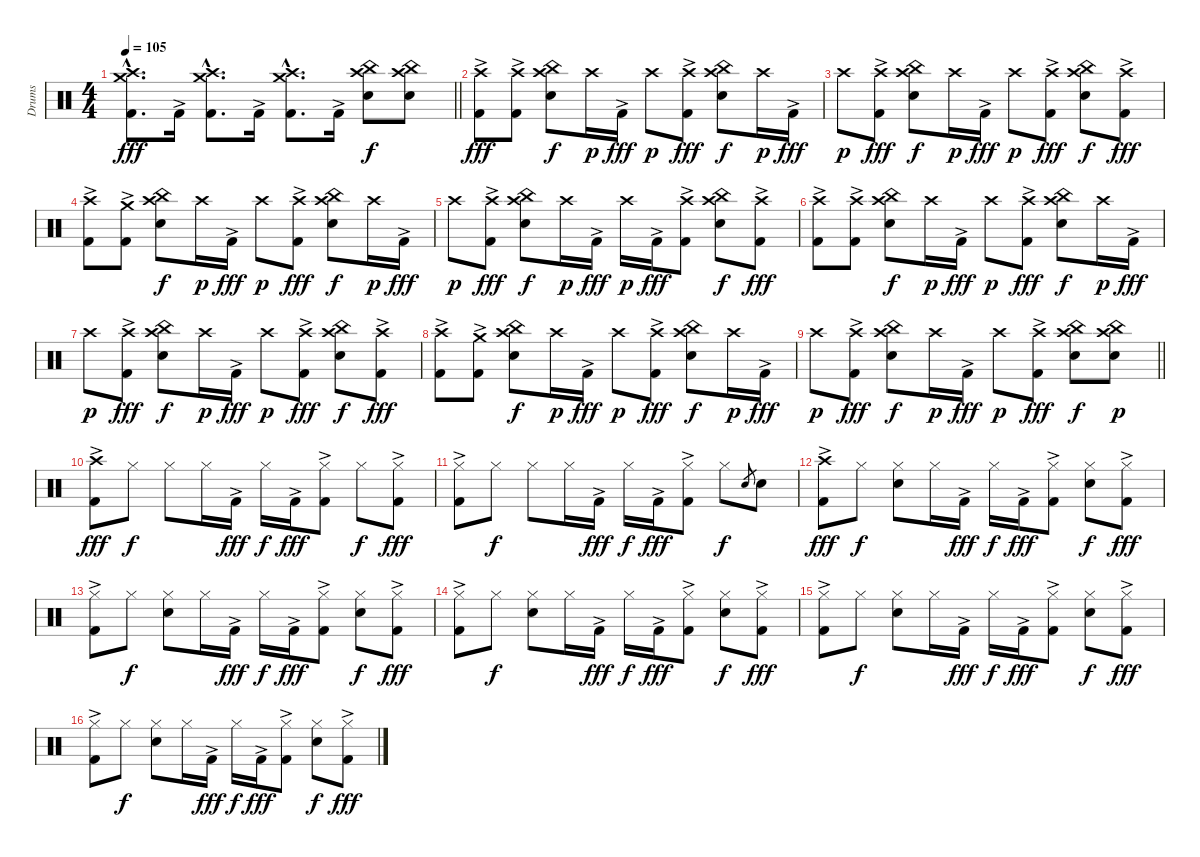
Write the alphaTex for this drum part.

\track ("Drums" "Drums") {instrument percussion}
\staff {score}
\articulation defaults
\ts (4 4)
\tempo 105
\clef neutral
\barLineRight lightlight
\ks aminor
("Crash high (hit)"{hac} "Crash medium (hit)"{hac} "Kick (hit) 2"{hac}).8{d dy fff} "Kick (hit) 2"{ac}.16 ("Crash high (hit)"{hac} "Crash medium (hit)"{hac} "Kick (hit) 2"{hac}).8{d} "Kick (hit) 2"{ac}.16 ("Crash high (hit)"{hac} "Crash medium (hit)"{hac} "Kick (hit) 2"{hac}).8{d} "Kick (hit) 2"{ac}.16 ("Crash high (hit)" "China (hit)" "Snare (hit) 2").8{dy f} ("Crash high (hit)" "China (hit)" "Snare (hit) 2").8 |
("Crash high (hit)" "Kick (hit) 2"{ac}).8{dy fff} ("Crash high (hit)" "Kick (hit) 2"{ac}).8 ("Crash high (hit)" "China (hit)" "Snare (hit) 2").8{dy f} "Crash high (hit)".16{dy p} "Kick (hit) 2"{ac}.16{dy fff} "Crash high (hit)".8{dy p} ("Crash high (hit)" "Kick (hit) 2"{ac}).8{dy fff} ("Crash high (hit)" "China (hit)" "Snare (hit) 2").8{dy f} "Crash high (hit)".16{dy p} "Kick (hit) 2"{ac}.16{dy fff} |
"Crash high (hit)".8{dy p} ("Crash high (hit)" "Kick (hit) 2"{ac}).8{dy fff} ("Crash high (hit)" "China (hit)" "Snare (hit) 2").8{dy f} "Crash high (hit)".16{dy p} "Kick (hit) 2"{ac}.16{dy fff} "Crash high (hit)".8{dy p} ("Crash high (hit)" "Kick (hit) 2"{ac}).8{dy fff} ("Crash high (hit)" "China (hit)" "Snare (hit) 2").8{dy f} ("Crash high (hit)" "Kick (hit) 2"{ac}).8{dy fff} |
("Crash high (hit)" "Kick (hit) 2"{ac}).8 ("Crash medium (hit)" "Kick (hit) 2"{ac}).8 ("Crash high (hit)" "China (hit)" "Snare (hit) 2").8{dy f} "Crash high (hit)".16{dy p} "Kick (hit) 2"{ac}.16{dy fff} "Crash high (hit)".8{dy p} ("Crash high (hit)" "Kick (hit) 2"{ac}).8{dy fff} ("Crash high (hit)" "China (hit)" "Snare (hit) 2").8{dy f} "Crash high (hit)".16{dy p} "Kick (hit) 2"{ac}.16{dy fff} |
"Crash high (hit)".8{dy p} ("Crash high (hit)" "Kick (hit) 2"{ac}).8{dy fff} ("Crash high (hit)" "China (hit)" "Snare (hit) 2").8{dy f} "Crash high (hit)".16{dy p} "Kick (hit) 2"{ac}.16{dy fff} "Crash high (hit)".16{dy p} "Kick (hit) 2"{ac}.16{dy fff} ("Crash high (hit)" "Kick (hit) 2"{ac}).8 ("Crash high (hit)" "China (hit)" "Snare (hit) 2").8{dy f} ("Crash high (hit)" "Kick (hit) 2"{ac}).8{dy fff} |
("Crash high (hit)" "Kick (hit) 2"{ac}).8 ("Crash high (hit)" "Kick (hit) 2"{ac}).8 ("Crash high (hit)" "China (hit)" "Snare (hit) 2").8{dy f} "Crash high (hit)".16{dy p} "Kick (hit) 2"{ac}.16{dy fff} "Crash high (hit)".8{dy p} ("Crash high (hit)" "Kick (hit) 2"{ac}).8{dy fff} ("Crash high (hit)" "China (hit)" "Snare (hit) 2").8{dy f} "Crash high (hit)".16{dy p} "Kick (hit) 2"{ac}.16{dy fff} |
"Crash high (hit)".8{dy p} ("Crash high (hit)" "Kick (hit) 2"{ac}).8{dy fff} ("Crash high (hit)" "China (hit)" "Snare (hit) 2").8{dy f} "Crash high (hit)".16{dy p} "Kick (hit) 2"{ac}.16{dy fff} "Crash high (hit)".8{dy p} ("Crash high (hit)" "Kick (hit) 2"{ac}).8{dy fff} ("Crash high (hit)" "China (hit)" "Snare (hit) 2").8{dy f} ("Crash high (hit)" "Kick (hit) 2"{ac}).8{dy fff} |
("Crash high (hit)" "Kick (hit) 2"{ac}).8 ("Crash medium (hit)" "Kick (hit) 2"{ac}).8 ("Crash high (hit)" "China (hit)" "Snare (hit) 2").8{dy f} "Crash high (hit)".16{dy p} "Kick (hit) 2"{ac}.16{dy fff} "Crash high (hit)".8{dy p} ("Crash high (hit)" "Kick (hit) 2"{ac}).8{dy fff} ("Crash high (hit)" "China (hit)" "Snare (hit) 2").8{dy f} "Crash high (hit)".16{dy p} "Kick (hit) 2"{ac}.16{dy fff} |
\barLineRight lightlight "Crash high (hit)".8{dy p}
("Crash high (hit)" "Kick (hit) 2"{ac}).8{dy fff} ("Crash high (hit)" "China (hit)" "Snare (hit) 2").8{dy f} "Crash high (hit)".16{dy p} "Kick (hit) 2"{ac}.16{dy fff} "Crash high (hit)".8{dy p} ("Crash high (hit)" "Kick (hit) 2"{ac}).8{dy fff} ("Crash high (hit)" "China (hit)" "Snare (hit) 2").8{dy f} ("Crash high (hit)" "China (hit)" "Snare (hit) 2").8{dy p} |
("Crash high (hit)" "Kick (hit) 2"{ac}).8{dy fff} "Hi-Hat (closed)".8{dy f} "Hi-Hat (closed)".8 "Hi-Hat (closed)".16 "Kick (hit) 2"{ac}.16{dy fff} "Hi-Hat (closed)".16{dy f} "Kick (hit) 2"{ac}.16{dy fff} ("Hi-Hat (closed)" "Kick (hit) 2"{ac}).8 "Hi-Hat (closed)".8{dy f} ("Hi-Hat (closed)" "Kick (hit) 2"{ac}).8{dy fff} |
("Hi-Hat (closed)" "Kick (hit) 2"{ac}).8 "Hi-Hat (closed)".8{dy f} "Hi-Hat (closed)".8 "Hi-Hat (closed)".16 "Kick (hit) 2"{ac}.16{dy fff} "Hi-Hat (closed)".16{dy f} "Kick (hit) 2"{ac}.16{dy fff} ("Hi-Hat (closed)" "Kick (hit) 2"{ac}).8 "Hi-Hat (closed)".8{dy f} "Snare (hit) 2".8{gr} "Snare (hit) 2".8 |
("Crash high (hit)" "Kick (hit) 2"{ac}).8{dy fff} "Hi-Hat (closed)".8{dy f} ("Hi-Hat (closed)" "Snare (hit) 2").8 "Hi-Hat (closed)".16 "Kick (hit) 2"{ac}.16{dy fff} "Hi-Hat (closed)".16{dy f} "Kick (hit) 2"{ac}.16{dy fff} ("Hi-Hat (closed)" "Kick (hit) 2"{ac}).8 ("Hi-Hat (closed)" "Snare (hit) 2").8{dy f} ("Hi-Hat (closed)" "Kick (hit) 2"{ac}).8{dy fff} |
("Hi-Hat (closed)" "Kick (hit) 2"{ac}).8 "Hi-Hat (closed)".8{dy f} ("Hi-Hat (closed)" "Snare (hit) 2").8 "Hi-Hat (closed)".16 "Kick (hit) 2"{ac}.16{dy fff} "Hi-Hat (closed)".16{dy f} "Kick (hit) 2"{ac}.16{dy fff} ("Hi-Hat (closed)" "Kick (hit) 2"{ac}).8 ("Hi-Hat (closed)" "Snare (hit) 2").8{dy f} ("Hi-Hat (closed)" "Kick (hit) 2"{ac}).8{dy fff} |
("Hi-Hat (closed)" "Kick (hit) 2"{ac}).8 "Hi-Hat (closed)".8{dy f} ("Hi-Hat (closed)" "Snare (hit) 2").8 "Hi-Hat (closed)".16 "Kick (hit) 2"{ac}.16{dy fff} "Hi-Hat (closed)".16{dy f} "Kick (hit) 2"{ac}.16{dy fff} ("Hi-Hat (closed)" "Kick (hit) 2"{ac}).8 ("Hi-Hat (closed)" "Snare (hit) 2").8{dy f} ("Hi-Hat (closed)" "Kick (hit) 2"{ac}).8{dy fff} |
("Hi-Hat (closed)" "Kick (hit) 2"{ac}).8 "Hi-Hat (closed)".8{dy f} ("Hi-Hat (closed)" "Snare (hit) 2").8 "Hi-Hat (closed)".16 "Kick (hit) 2"{ac}.16{dy fff} "Hi-Hat (closed)".16{dy f} "Kick (hit) 2"{ac}.16{dy fff} ("Hi-Hat (closed)" "Kick (hit) 2"{ac}).8 ("Hi-Hat (closed)" "Snare (hit) 2").8{dy f} ("Hi-Hat (closed)" "Kick (hit) 2"{ac}).8{dy fff} |
("Hi-Hat (closed)" "Kick (hit) 2"{ac}).8 "Hi-Hat (closed)".8{dy f} ("Hi-Hat (closed)" "Snare (hit) 2").8 "Hi-Hat (closed)".16 "Kick (hit) 2"{ac}.16{dy fff} "Hi-Hat (closed)".16{dy f} "Kick (hit) 2"{ac}.16{dy fff} ("Hi-Hat (closed)" "Kick (hit) 2"{ac}).8 ("Hi-Hat (closed)" "Snare (hit) 2").8{dy f} ("Hi-Hat (closed)" "Kick (hit) 2"{ac}).8{dy fff}
